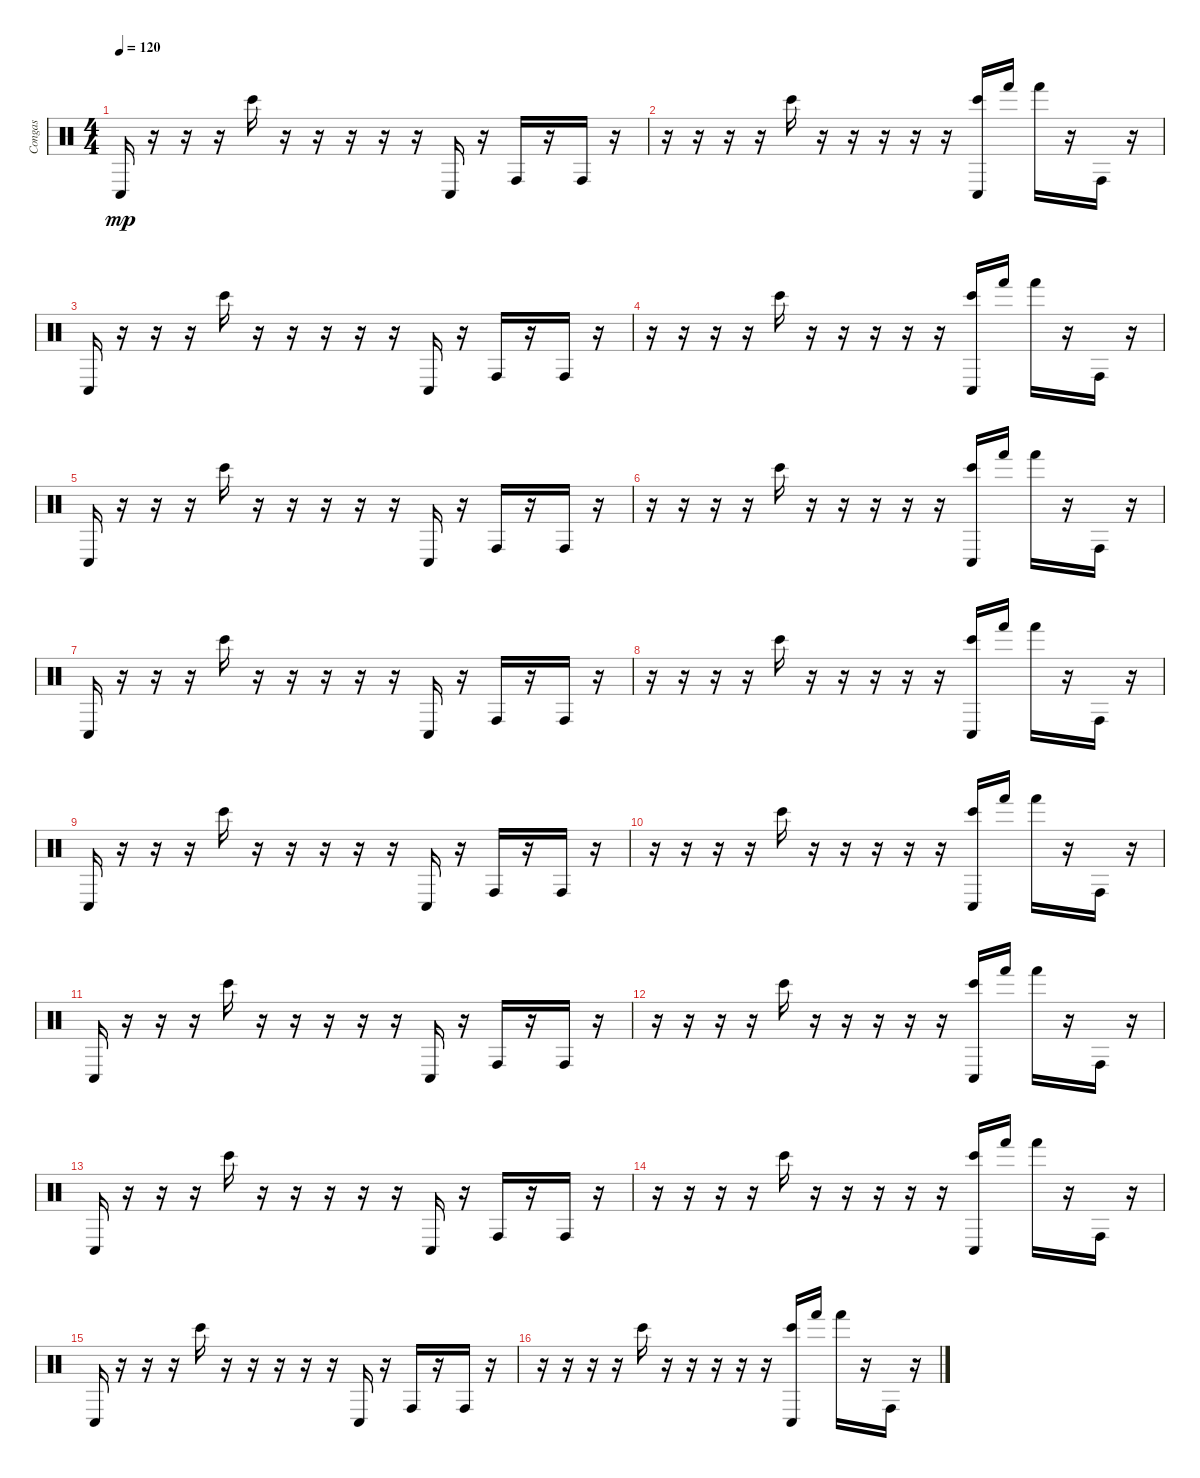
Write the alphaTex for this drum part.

\track ("Congas" "Congas") {instrument percussion}
\staff {score}
\articulation defaults
\ts (4 4)
\tempo 120
\clef neutral
\ks c "Conga low (hit)".16{dy mp}
r.16 r.16 r.16 "Bongo High (hit)".16 r.16 r.16 r.16 r.16 r.16 "Conga low (hit)".16 r.16 "Conga high (hit)".16 r.16 "Conga high (hit)".16 r.16 |
r.16 r.16 r.16 r.16 "Bongo High (hit)".16 r.16 r.16 r.16 r.16 r.16 ("Bongo High (hit)" "Conga low (hit)").16 "Hand (hit)".16 "Hand (hit)".16 r.16 "Conga high (hit)".16 r.16 |
"Conga low (hit)".16 r.16 r.16 r.16 "Bongo High (hit)".16 r.16 r.16 r.16 r.16 r.16 "Conga low (hit)".16 r.16 "Conga high (hit)".16 r.16 "Conga high (hit)".16 r.16 |
r.16 r.16 r.16 r.16 "Bongo High (hit)".16 r.16 r.16 r.16 r.16 r.16 ("Bongo High (hit)" "Conga low (hit)").16 "Hand (hit)".16 "Hand (hit)".16 r.16 "Conga high (hit)".16 r.16 |
"Conga low (hit)".16 r.16 r.16 r.16 "Bongo High (hit)".16 r.16 r.16 r.16 r.16 r.16 "Conga low (hit)".16 r.16 "Conga high (hit)".16 r.16 "Conga high (hit)".16 r.16 |
r.16 r.16 r.16 r.16 "Bongo High (hit)".16 r.16 r.16 r.16 r.16 r.16 ("Bongo High (hit)" "Conga low (hit)").16 "Hand (hit)".16 "Hand (hit)".16 r.16 "Conga high (hit)".16 r.16 |
"Conga low (hit)".16 r.16 r.16 r.16 "Bongo High (hit)".16 r.16 r.16 r.16 r.16 r.16 "Conga low (hit)".16 r.16 "Conga high (hit)".16 r.16 "Conga high (hit)".16 r.16 |
r.16 r.16 r.16 r.16 "Bongo High (hit)".16 r.16 r.16 r.16 r.16 r.16 ("Bongo High (hit)" "Conga low (hit)").16 "Hand (hit)".16 "Hand (hit)".16 r.16 "Conga high (hit)".16 r.16 |
"Conga low (hit)".16 r.16 r.16 r.16 "Bongo High (hit)".16 r.16 r.16 r.16 r.16 r.16 "Conga low (hit)".16 r.16 "Conga high (hit)".16 r.16 "Conga high (hit)".16 r.16 |
r.16 r.16 r.16 r.16 "Bongo High (hit)".16 r.16 r.16 r.16 r.16 r.16 ("Bongo High (hit)" "Conga low (hit)").16 "Hand (hit)".16 "Hand (hit)".16 r.16 "Conga high (hit)".16 r.16 |
"Conga low (hit)".16 r.16 r.16 r.16 "Bongo High (hit)".16 r.16 r.16 r.16 r.16 r.16 "Conga low (hit)".16 r.16 "Conga high (hit)".16 r.16 "Conga high (hit)".16 r.16 |
r.16 r.16 r.16 r.16 "Bongo High (hit)".16 r.16 r.16 r.16 r.16 r.16 ("Bongo High (hit)" "Conga low (hit)").16 "Hand (hit)".16 "Hand (hit)".16 r.16 "Conga high (hit)".16 r.16 |
"Conga low (hit)".16 r.16 r.16 r.16 "Bongo High (hit)".16 r.16 r.16 r.16 r.16 r.16 "Conga low (hit)".16 r.16 "Conga high (hit)".16 r.16 "Conga high (hit)".16 r.16 |
r.16 r.16 r.16 r.16 "Bongo High (hit)".16 r.16 r.16 r.16 r.16 r.16 ("Bongo High (hit)" "Conga low (hit)").16 "Hand (hit)".16 "Hand (hit)".16 r.16 "Conga high (hit)".16 r.16 |
"Conga low (hit)".16 r.16 r.16 r.16 "Bongo High (hit)".16 r.16 r.16 r.16 r.16 r.16 "Conga low (hit)".16 r.16 "Conga high (hit)".16 r.16 "Conga high (hit)".16 r.16 |
r.16 r.16 r.16 r.16 "Bongo High (hit)".16 r.16 r.16 r.16 r.16 r.16 ("Bongo High (hit)" "Conga low (hit)").16 "Hand (hit)".16 "Hand (hit)".16 r.16 "Conga high (hit)".16 r.16
